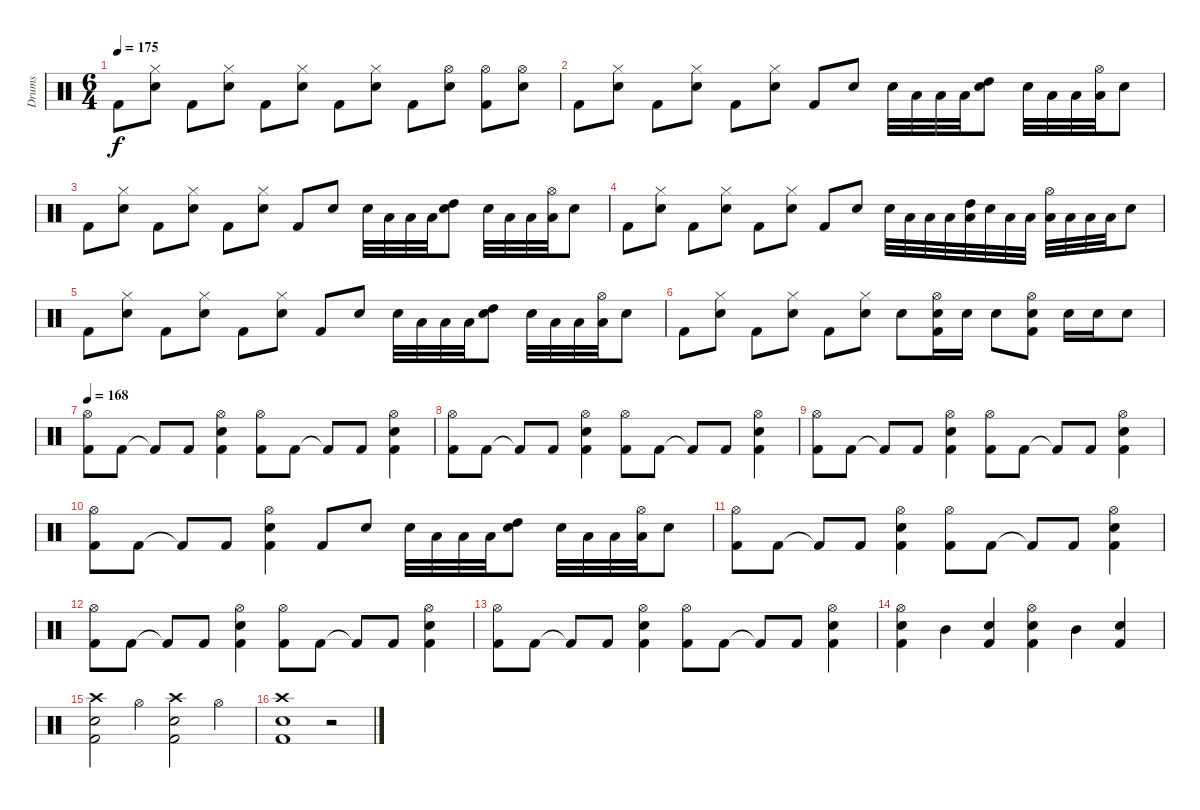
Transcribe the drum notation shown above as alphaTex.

\track ("Drums" "Drums") {instrument percussion}
\staff {score}
\articulation defaults
\ts (6 4)
\tempo 175
\clef neutral
\ks c "Kick (hit) 2".8{dy f}
("Hi-Hat (closed)" "Snare (hit) 2").8 "Kick (hit) 2".8 ("Hi-Hat (closed)" "Snare (hit) 2").8 "Kick (hit) 2".8 ("Hi-Hat (closed)" "Snare (hit) 2").8 "Kick (hit) 2".8 ("Hi-Hat (closed)" "Snare (hit) 2").8 "Kick (hit) 2".8 ("Hi-Hat (open)" "Snare (hit) 2").8 ("Hi-Hat (open)" "Kick (hit) 2").8 ("Hi-Hat (open)" "Snare (hit) 2").8 |
"Kick (hit) 2".8 ("Hi-Hat (closed)" "Snare (hit) 2").8 "Kick (hit) 2".8 ("Hi-Hat (closed)" "Snare (hit) 2").8 "Kick (hit) 2".8 ("Hi-Hat (closed)" "Snare (hit) 2").8 "Kick (hit) 2".8 "Snare (hit) 2".8 "Snare (hit) 2".32 "Low Tom (hit)".32 "Low Floor Tom (hit)".32 "Low Floor Tom (hit)".32 ("High Tom (hit)" "Snare (hit) 2").8 "Snare (hit) 2".32 "Low Tom (hit)".32 "Low Floor Tom (hit)".32 ("Hi-Hat (open)" "Low Floor Tom (hit)").32 "Snare (hit) 2".8 |
"Kick (hit) 2".8 ("Hi-Hat (closed)" "Snare (hit) 2").8 "Kick (hit) 2".8 ("Hi-Hat (closed)" "Snare (hit) 2").8 "Kick (hit) 2".8 ("Hi-Hat (closed)" "Snare (hit) 2").8 "Kick (hit) 2".8 "Snare (hit) 2".8 "Snare (hit) 2".32 "Low Tom (hit)".32 "Low Floor Tom (hit)".32 "Low Floor Tom (hit)".32 ("High Tom (hit)" "Snare (hit) 2").8 "Snare (hit) 2".32 "Low Tom (hit)".32 "Low Floor Tom (hit)".32 ("Hi-Hat (open)" "Low Floor Tom (hit)").32 "Snare (hit) 2".8 |
"Kick (hit) 2".8 ("Hi-Hat (closed)" "Snare (hit) 2").8 "Kick (hit) 2".8 ("Hi-Hat (closed)" "Snare (hit) 2").8 "Kick (hit) 2".8 ("Hi-Hat (closed)" "Snare (hit) 2").8 "Kick (hit) 2".8 "Snare (hit) 2".8 "Snare (hit) 2".32 "Low Tom (hit)".32 "Low Floor Tom (hit)".32 "Low Tom (hit)".32 ("High Tom (hit)" "Low Floor Tom (hit)").32 "Snare (hit) 2".32 "Low Tom (hit)".32 "Low Floor Tom (hit)".32 ("Hi-Hat (open)" "Low Tom (hit)").32 "Low Floor Tom (hit)".32 "Low Tom (hit)".32 "Low Floor Tom (hit)".32 "Snare (hit) 2".8 |
"Kick (hit) 2".8 ("Hi-Hat (closed)" "Snare (hit) 2").8 "Kick (hit) 2".8 ("Hi-Hat (closed)" "Snare (hit) 2").8 "Kick (hit) 2".8 ("Hi-Hat (closed)" "Snare (hit) 2").8 "Kick (hit) 2".8 "Snare (hit) 2".8 "Snare (hit) 2".32 "Low Tom (hit)".32 "Low Floor Tom (hit)".32 "Low Floor Tom (hit)".32 ("High Tom (hit)" "Snare (hit) 2").8 "Snare (hit) 2".32 "Low Tom (hit)".32 "Low Floor Tom (hit)".32 ("Hi-Hat (open)" "Low Floor Tom (hit)").32 "Snare (hit) 2".8 |
"Kick (hit) 2".8 ("Hi-Hat (closed)" "Snare (hit) 2").8 "Kick (hit) 2".8 ("Hi-Hat (closed)" "Snare (hit) 2").8 "Kick (hit) 2".8 ("Hi-Hat (closed)" "Snare (hit) 2").8 "Snare (hit) 2".8 ("Hi-Hat (open)" "Snare (hit) 2" "Kick (hit) 2").16 "Snare (hit) 2".16 "Snare (hit) 2".8 ("Hi-Hat (open)" "Snare (hit) 2" "Kick (hit) 2").8 "Snare (hit) 2".16 "Snare (hit) 2".16 "Snare (hit) 2".8 |
\tempo 168
("Hi-Hat (open)" "Kick (hit) 2").8 "Kick (hit) 2".8 "Kick (hit) 2"{t}.8 "Kick (hit) 2".8 ("Hi-Hat (open)" "Snare (hit) 2" "Kick (hit) 2").4 ("Hi-Hat (open)" "Kick (hit) 2").8 "Kick (hit) 2".8 "Kick (hit) 2"{t}.8 "Kick (hit) 2".8 ("Hi-Hat (open)" "Snare (hit) 2" "Kick (hit) 2").4 |
("Hi-Hat (open)" "Kick (hit) 2").8 "Kick (hit) 2".8 "Kick (hit) 2"{t}.8 "Kick (hit) 2".8 ("Hi-Hat (open)" "Snare (hit) 2" "Kick (hit) 2").4 ("Hi-Hat (open)" "Kick (hit) 2").8 "Kick (hit) 2".8 "Kick (hit) 2"{t}.8 "Kick (hit) 2".8 ("Hi-Hat (open)" "Snare (hit) 2" "Kick (hit) 2").4 |
("Hi-Hat (open)" "Kick (hit) 2").8 "Kick (hit) 2".8 "Kick (hit) 2"{t}.8 "Kick (hit) 2".8 ("Hi-Hat (open)" "Snare (hit) 2" "Kick (hit) 2").4 ("Hi-Hat (open)" "Kick (hit) 2").8 "Kick (hit) 2".8 "Kick (hit) 2"{t}.8 "Kick (hit) 2".8 ("Hi-Hat (open)" "Snare (hit) 2" "Kick (hit) 2").4 |
("Hi-Hat (open)" "Kick (hit) 2").8 "Kick (hit) 2".8 "Kick (hit) 2"{t}.8 "Kick (hit) 2".8 ("Hi-Hat (open)" "Snare (hit) 2" "Kick (hit) 2").4 "Kick (hit) 2".8 "Snare (hit) 2".8 "Snare (hit) 2".32 "Low Tom (hit)".32 "Low Floor Tom (hit)".32 "Low Floor Tom (hit)".32 ("High Tom (hit)" "Snare (hit) 2").8 "Snare (hit) 2".32 "Low Tom (hit)".32 "Low Floor Tom (hit)".32 ("Hi-Hat (open)" "Low Floor Tom (hit)").32 "Snare (hit) 2".8 |
("Hi-Hat (open)" "Kick (hit) 2").8 "Kick (hit) 2".8 "Kick (hit) 2"{t}.8 "Kick (hit) 2".8 ("Hi-Hat (open)" "Snare (hit) 2" "Kick (hit) 2").4 ("Hi-Hat (open)" "Kick (hit) 2").8 "Kick (hit) 2".8 "Kick (hit) 2"{t}.8 "Kick (hit) 2".8 ("Hi-Hat (open)" "Snare (hit) 2" "Kick (hit) 2").4 |
("Hi-Hat (open)" "Kick (hit) 2").8 "Kick (hit) 2".8 "Kick (hit) 2"{t}.8 "Kick (hit) 2".8 ("Hi-Hat (open)" "Snare (hit) 2" "Kick (hit) 2").4 ("Hi-Hat (open)" "Kick (hit) 2").8 "Kick (hit) 2".8 "Kick (hit) 2"{t}.8 "Kick (hit) 2".8 ("Hi-Hat (open)" "Snare (hit) 2" "Kick (hit) 2").4 |
("Hi-Hat (open)" "Kick (hit) 2").8 "Kick (hit) 2".8 "Kick (hit) 2"{t}.8 "Kick (hit) 2".8 ("Hi-Hat (open)" "Snare (hit) 2" "Kick (hit) 2").4 ("Hi-Hat (open)" "Kick (hit) 2").8 "Kick (hit) 2".8 "Kick (hit) 2"{t}.8 "Kick (hit) 2".8 ("Hi-Hat (open)" "Snare (hit) 2" "Kick (hit) 2").4 |
("Hi-Hat (open)" "Snare (hit) 2" "Kick (hit) 2").4 "Mid Tom (hit)".4 ("Snare (hit) 2" "Kick (hit) 2").4 ("Hi-Hat (open)" "Snare (hit) 2" "Kick (hit) 2").4 "Mid Tom (hit)".4 ("Snare (hit) 2" "Kick (hit) 2").4 |
("Crash high (hit)" "Snare (hit) 2" "Kick (hit) 2").2 "Hi-Hat (open)".4 ("Crash high (hit)" "Snare (hit) 2" "Kick (hit) 2").2 "Hi-Hat (open)".4 |
("Crash high (hit)" "Snare (hit) 2" "Kick (hit) 2").1 r.2
